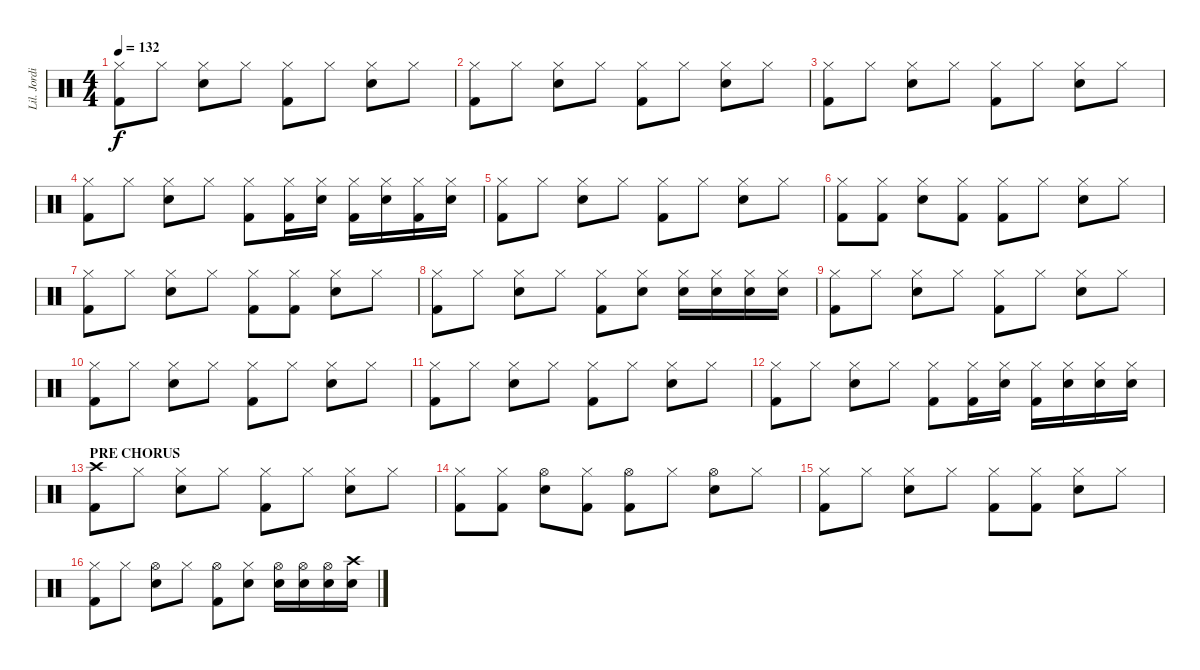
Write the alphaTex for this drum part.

\track ("Lil. Jordison" "Lil. Jordi") {instrument percussion}
\staff {score}
\articulation defaults
\ts (4 4)
\tempo 132
\clef neutral
\ks c
("Hi-Hat (closed)" "Kick (hit) 2").8{dy f} "Hi-Hat (closed)".8 ("Hi-Hat (closed)" "Electric Snare (hit)").8 "Hi-Hat (closed)".8 ("Hi-Hat (closed)" "Kick (hit) 2").8 "Hi-Hat (closed)".8 ("Hi-Hat (closed)" "Electric Snare (hit)").8 "Hi-Hat (closed)".8 |
("Hi-Hat (closed)" "Kick (hit) 2").8 "Hi-Hat (closed)".8 ("Hi-Hat (closed)" "Electric Snare (hit)").8 "Hi-Hat (closed)".8 ("Hi-Hat (closed)" "Kick (hit) 2").8 "Hi-Hat (closed)".8 ("Hi-Hat (closed)" "Electric Snare (hit)").8 "Hi-Hat (closed)".8 |
("Hi-Hat (closed)" "Kick (hit) 2").8 "Hi-Hat (closed)".8 ("Hi-Hat (closed)" "Electric Snare (hit)").8 "Hi-Hat (closed)".8 ("Hi-Hat (closed)" "Kick (hit) 2").8 "Hi-Hat (closed)".8 ("Hi-Hat (closed)" "Electric Snare (hit)").8 "Hi-Hat (closed)".8 |
("Hi-Hat (closed)" "Kick (hit) 2").8 "Hi-Hat (closed)".8 ("Hi-Hat (closed)" "Electric Snare (hit)").8 "Hi-Hat (closed)".8 ("Hi-Hat (closed)" "Kick (hit) 2").8 ("Hi-Hat (closed)" "Kick (hit) 2").16 ("Hi-Hat (closed)" "Electric Snare (hit)").16 ("Hi-Hat (closed)" "Kick (hit) 2").16 ("Hi-Hat (closed)" "Electric Snare (hit)").16 ("Hi-Hat (closed)" "Kick (hit) 2").16 ("Hi-Hat (closed)" "Electric Snare (hit)").16 |
("Hi-Hat (closed)" "Kick (hit) 2").8 "Hi-Hat (closed)".8 ("Hi-Hat (closed)" "Electric Snare (hit)").8 "Hi-Hat (closed)".8 ("Hi-Hat (closed)" "Kick (hit) 2").8 "Hi-Hat (closed)".8 ("Hi-Hat (closed)" "Electric Snare (hit)").8 "Hi-Hat (closed)".8 |
("Hi-Hat (closed)" "Kick (hit) 2").8 ("Hi-Hat (closed)" "Kick (hit) 2").8 ("Hi-Hat (closed)" "Electric Snare (hit)").8 ("Hi-Hat (closed)" "Kick (hit) 2").8 ("Hi-Hat (closed)" "Kick (hit) 2").8 "Hi-Hat (closed)".8 ("Hi-Hat (closed)" "Electric Snare (hit)").8 "Hi-Hat (closed)".8 |
("Hi-Hat (closed)" "Kick (hit) 2").8 "Hi-Hat (closed)".8 ("Hi-Hat (closed)" "Electric Snare (hit)").8 "Hi-Hat (closed)".8 ("Hi-Hat (closed)" "Kick (hit) 2").8 ("Hi-Hat (closed)" "Kick (hit) 2").8 ("Hi-Hat (closed)" "Electric Snare (hit)").8 "Hi-Hat (closed)".8 |
("Hi-Hat (closed)" "Kick (hit) 2").8 "Hi-Hat (closed)".8 ("Hi-Hat (closed)" "Electric Snare (hit)").8 "Hi-Hat (closed)".8 ("Hi-Hat (closed)" "Kick (hit) 2").8 ("Hi-Hat (closed)" "Electric Snare (hit)").8 ("Hi-Hat (closed)" "Electric Snare (hit)").16 ("Hi-Hat (closed)" "Electric Snare (hit)").16 ("Hi-Hat (closed)" "Electric Snare (hit)").16 ("Hi-Hat (closed)" "Electric Snare (hit)").16 |
("Hi-Hat (closed)" "Kick (hit) 2").8 "Hi-Hat (closed)".8 ("Hi-Hat (closed)" "Electric Snare (hit)").8 "Hi-Hat (closed)".8 ("Hi-Hat (closed)" "Kick (hit) 2").8 "Hi-Hat (closed)".8 ("Hi-Hat (closed)" "Electric Snare (hit)").8 "Hi-Hat (closed)".8 |
("Hi-Hat (closed)" "Kick (hit) 2").8 "Hi-Hat (closed)".8 ("Hi-Hat (closed)" "Electric Snare (hit)").8 "Hi-Hat (closed)".8 ("Hi-Hat (closed)" "Kick (hit) 2").8 "Hi-Hat (closed)".8 ("Hi-Hat (closed)" "Electric Snare (hit)").8 "Hi-Hat (closed)".8 |
("Hi-Hat (closed)" "Kick (hit) 2").8 "Hi-Hat (closed)".8 ("Hi-Hat (closed)" "Electric Snare (hit)").8 "Hi-Hat (closed)".8 ("Hi-Hat (closed)" "Kick (hit) 2").8 "Hi-Hat (closed)".8 ("Hi-Hat (closed)" "Electric Snare (hit)").8 "Hi-Hat (closed)".8 |
("Hi-Hat (closed)" "Kick (hit) 2").8 "Hi-Hat (closed)".8 ("Hi-Hat (closed)" "Electric Snare (hit)").8 "Hi-Hat (closed)".8 ("Hi-Hat (closed)" "Kick (hit) 2").8 ("Hi-Hat (closed)" "Kick (hit) 2").16 ("Hi-Hat (closed)" "Electric Snare (hit)").16 ("Hi-Hat (closed)" "Kick (hit) 2").16 ("Hi-Hat (closed)" "Electric Snare (hit)").16 ("Hi-Hat (closed)" "Electric Snare (hit)").16 ("Hi-Hat (closed)" "Electric Snare (hit)").16 |
\section ("" "PRE CHORUS")
("Crash high (hit)" "Kick (hit) 2").8 "Hi-Hat (closed)".8 ("Hi-Hat (closed)" "Electric Snare (hit)").8 "Hi-Hat (closed)".8 ("Hi-Hat (closed)" "Kick (hit) 2").8 "Hi-Hat (closed)".8 ("Hi-Hat (closed)" "Electric Snare (hit)").8 "Hi-Hat (closed)".8 |
("Hi-Hat (closed)" "Kick (hit) 2").8 ("Hi-Hat (closed)" "Kick (hit) 2").8 ("Hi-Hat (open)" "Electric Snare (hit)").8 ("Hi-Hat (closed)" "Kick (hit) 2").8 ("Hi-Hat (open)" "Kick (hit) 2").8 "Hi-Hat (closed)".8 ("Hi-Hat (open)" "Electric Snare (hit)").8 "Hi-Hat (closed)".8 |
("Hi-Hat (closed)" "Kick (hit) 2").8 "Hi-Hat (closed)".8 ("Hi-Hat (closed)" "Electric Snare (hit)").8 "Hi-Hat (closed)".8 ("Hi-Hat (closed)" "Kick (hit) 2").8 ("Hi-Hat (closed)" "Kick (hit) 2").8 ("Hi-Hat (closed)" "Electric Snare (hit)").8 "Hi-Hat (closed)".8 |
("Hi-Hat (closed)" "Kick (hit) 2").8 "Hi-Hat (closed)".8 ("Hi-Hat (open)" "Electric Snare (hit)").8 "Hi-Hat (closed)".8 ("Hi-Hat (open)" "Kick (hit) 2").8 ("Hi-Hat (closed)" "Electric Snare (hit)").8 ("Hi-Hat (open)" "Electric Snare (hit)").16 ("Hi-Hat (open)" "Electric Snare (hit)").16 ("Hi-Hat (open)" "Electric Snare (hit)").16 ("Crash high (hit)" "Electric Snare (hit)").16
